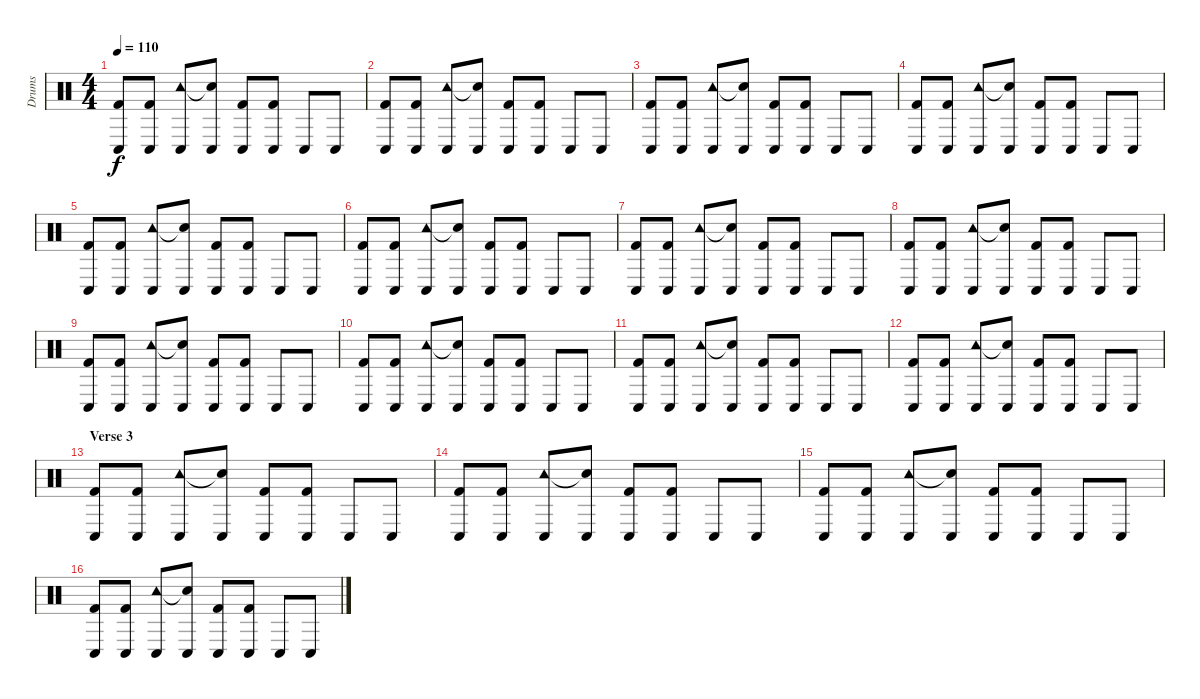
\track ("Drums" "Drums") {instrument percussion}
\staff {score}
\articulation defaults
\ts (4 4)
\tempo 110
\clef neutral
\ks c
("Conga low (hit)" "Kick (hit) 2").8{dy f} ("Conga low (hit)" "Kick (hit) 2").8 ("Tambourine (hit)" "Conga low (hit)").8 ("Snare (hit)"{t} "Conga low (hit)").8 ("Conga low (hit)" "Kick (hit) 2").8 ("Conga low (hit)" "Kick (hit) 2").8 "Conga low (hit)".8 "Conga low (hit)".8 |
("Conga low (hit)" "Kick (hit) 2").8 ("Conga low (hit)" "Kick (hit) 2").8 ("Tambourine (hit)" "Conga low (hit)").8 ("Snare (hit)"{t} "Conga low (hit)").8 ("Conga low (hit)" "Kick (hit) 2").8 ("Conga low (hit)" "Kick (hit) 2").8 "Conga low (hit)".8 "Conga low (hit)".8 |
("Conga low (hit)" "Kick (hit) 2").8 ("Conga low (hit)" "Kick (hit) 2").8 ("Tambourine (hit)" "Conga low (hit)").8 ("Snare (hit)"{t} "Conga low (hit)").8 ("Conga low (hit)" "Kick (hit) 2").8 ("Conga low (hit)" "Kick (hit) 2").8 "Conga low (hit)".8 "Conga low (hit)".8 |
("Conga low (hit)" "Kick (hit) 2").8 ("Conga low (hit)" "Kick (hit) 2").8 ("Tambourine (hit)" "Conga low (hit)").8 ("Snare (hit)"{t} "Conga low (hit)").8 ("Conga low (hit)" "Kick (hit) 2").8 ("Conga low (hit)" "Kick (hit) 2").8 "Conga low (hit)".8 "Conga low (hit)".8 |
("Conga low (hit)" "Kick (hit) 2").8 ("Conga low (hit)" "Kick (hit) 2").8 ("Tambourine (hit)" "Conga low (hit)").8 ("Snare (hit)"{t} "Conga low (hit)").8 ("Conga low (hit)" "Kick (hit) 2").8 ("Conga low (hit)" "Kick (hit) 2").8 "Conga low (hit)".8 "Conga low (hit)".8 |
("Conga low (hit)" "Kick (hit) 2").8 ("Conga low (hit)" "Kick (hit) 2").8 ("Tambourine (hit)" "Conga low (hit)").8 ("Snare (hit)"{t} "Conga low (hit)").8 ("Conga low (hit)" "Kick (hit) 2").8 ("Conga low (hit)" "Kick (hit) 2").8 "Conga low (hit)".8 "Conga low (hit)".8 |
("Conga low (hit)" "Kick (hit) 2").8 ("Conga low (hit)" "Kick (hit) 2").8 ("Tambourine (hit)" "Conga low (hit)").8 ("Snare (hit)"{t} "Conga low (hit)").8 ("Conga low (hit)" "Kick (hit) 2").8 ("Conga low (hit)" "Kick (hit) 2").8 "Conga low (hit)".8 "Conga low (hit)".8 |
("Conga low (hit)" "Kick (hit) 2").8 ("Conga low (hit)" "Kick (hit) 2").8 ("Tambourine (hit)" "Conga low (hit)").8 ("Snare (hit)"{t} "Conga low (hit)").8 ("Conga low (hit)" "Kick (hit) 2").8 ("Conga low (hit)" "Kick (hit) 2").8 "Conga low (hit)".8 "Conga low (hit)".8 |
("Conga low (hit)" "Kick (hit) 2").8 ("Conga low (hit)" "Kick (hit) 2").8 ("Tambourine (hit)" "Conga low (hit)").8 ("Snare (hit)"{t} "Conga low (hit)").8 ("Conga low (hit)" "Kick (hit) 2").8 ("Conga low (hit)" "Kick (hit) 2").8 "Conga low (hit)".8 "Conga low (hit)".8 |
("Conga low (hit)" "Kick (hit) 2").8 ("Conga low (hit)" "Kick (hit) 2").8 ("Tambourine (hit)" "Conga low (hit)").8 ("Snare (hit)"{t} "Conga low (hit)").8 ("Conga low (hit)" "Kick (hit) 2").8 ("Conga low (hit)" "Kick (hit) 2").8 "Conga low (hit)".8 "Conga low (hit)".8 |
("Conga low (hit)" "Kick (hit) 2").8 ("Conga low (hit)" "Kick (hit) 2").8 ("Tambourine (hit)" "Conga low (hit)").8 ("Snare (hit)"{t} "Conga low (hit)").8 ("Conga low (hit)" "Kick (hit) 2").8 ("Conga low (hit)" "Kick (hit) 2").8 "Conga low (hit)".8 "Conga low (hit)".8 |
("Conga low (hit)" "Kick (hit) 2").8 ("Conga low (hit)" "Kick (hit) 2").8 ("Tambourine (hit)" "Conga low (hit)").8 ("Snare (hit)"{t} "Conga low (hit)").8 ("Conga low (hit)" "Kick (hit) 2").8 ("Conga low (hit)" "Kick (hit) 2").8 "Conga low (hit)".8 "Conga low (hit)".8 |
\section ("" "Verse 3")
("Conga low (hit)" "Kick (hit) 2").8 ("Conga low (hit)" "Kick (hit) 2").8 ("Tambourine (hit)" "Conga low (hit)").8 ("Snare (hit)"{t} "Conga low (hit)").8 ("Conga low (hit)" "Kick (hit) 2").8 ("Conga low (hit)" "Kick (hit) 2").8 "Conga low (hit)".8 "Conga low (hit)".8 |
("Conga low (hit)" "Kick (hit) 2").8 ("Conga low (hit)" "Kick (hit) 2").8 ("Tambourine (hit)" "Conga low (hit)").8 ("Snare (hit)"{t} "Conga low (hit)").8 ("Conga low (hit)" "Kick (hit) 2").8 ("Conga low (hit)" "Kick (hit) 2").8 "Conga low (hit)".8 "Conga low (hit)".8 |
("Conga low (hit)" "Kick (hit) 2").8 ("Conga low (hit)" "Kick (hit) 2").8 ("Tambourine (hit)" "Conga low (hit)").8 ("Snare (hit)"{t} "Conga low (hit)").8 ("Conga low (hit)" "Kick (hit) 2").8 ("Conga low (hit)" "Kick (hit) 2").8 "Conga low (hit)".8 "Conga low (hit)".8 |
("Conga low (hit)" "Kick (hit) 2").8 ("Conga low (hit)" "Kick (hit) 2").8 ("Tambourine (hit)" "Conga low (hit)").8 ("Snare (hit)"{t} "Conga low (hit)").8 ("Conga low (hit)" "Kick (hit) 2").8 ("Conga low (hit)" "Kick (hit) 2").8 "Conga low (hit)".8 "Conga low (hit)".8
